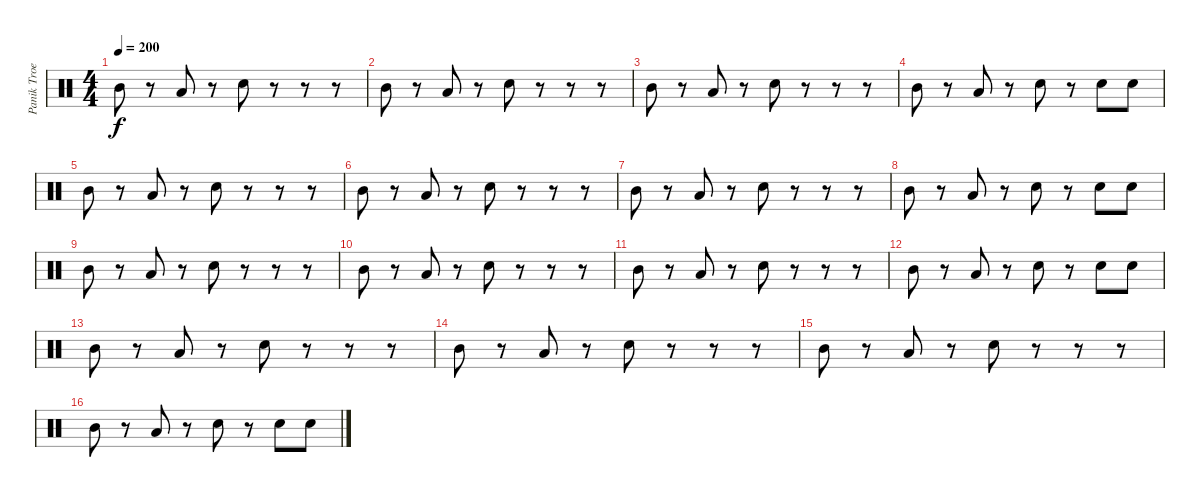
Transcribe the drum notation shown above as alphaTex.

\track ("Panik Troels ( Dengang )" "Panik Troe") {instrument percussion}
\staff {score}
\articulation defaults
\ts (4 4)
\tempo 200
\clef neutral
\ks c "Mid Tom (hit)".8{dy f}
r.8 "Low Tom (hit)".8 r.8 "Snare (hit) 2".8 r.8 r.8 r.8 |
"Mid Tom (hit)".8 r.8 "Low Tom (hit)".8 r.8 "Snare (hit) 2".8 r.8 r.8 r.8 |
"Mid Tom (hit)".8 r.8 "Low Tom (hit)".8 r.8 "Snare (hit) 2".8 r.8 r.8 r.8 |
"Mid Tom (hit)".8 r.8 "Low Tom (hit)".8 r.8 "Snare (hit) 2".8 r.8 "Snare (hit) 2".8 "Snare (hit) 2".8 |
"Mid Tom (hit)".8 r.8 "Low Tom (hit)".8 r.8 "Snare (hit) 2".8 r.8 r.8 r.8 |
"Mid Tom (hit)".8 r.8 "Low Tom (hit)".8 r.8 "Snare (hit) 2".8 r.8 r.8 r.8 |
"Mid Tom (hit)".8 r.8 "Low Tom (hit)".8 r.8 "Snare (hit) 2".8 r.8 r.8 r.8 |
"Mid Tom (hit)".8 r.8 "Low Tom (hit)".8 r.8 "Snare (hit) 2".8 r.8 "Snare (hit) 2".8 "Snare (hit) 2".8 |
"Mid Tom (hit)".8 r.8 "Low Tom (hit)".8 r.8 "Snare (hit) 2".8 r.8 r.8 r.8 |
"Mid Tom (hit)".8 r.8 "Low Tom (hit)".8 r.8 "Snare (hit) 2".8 r.8 r.8 r.8 |
"Mid Tom (hit)".8 r.8 "Low Tom (hit)".8 r.8 "Snare (hit) 2".8 r.8 r.8 r.8 |
"Mid Tom (hit)".8 r.8 "Low Tom (hit)".8 r.8 "Snare (hit) 2".8 r.8 "Snare (hit) 2".8 "Snare (hit) 2".8 |
"Mid Tom (hit)".8 r.8 "Low Tom (hit)".8 r.8 "Snare (hit) 2".8 r.8 r.8 r.8 |
"Mid Tom (hit)".8 r.8 "Low Tom (hit)".8 r.8 "Snare (hit) 2".8 r.8 r.8 r.8 |
"Mid Tom (hit)".8 r.8 "Low Tom (hit)".8 r.8 "Snare (hit) 2".8 r.8 r.8 r.8 |
"Mid Tom (hit)".8 r.8 "Low Tom (hit)".8 r.8 "Snare (hit) 2".8 r.8 "Snare (hit) 2".8 "Snare (hit) 2".8
